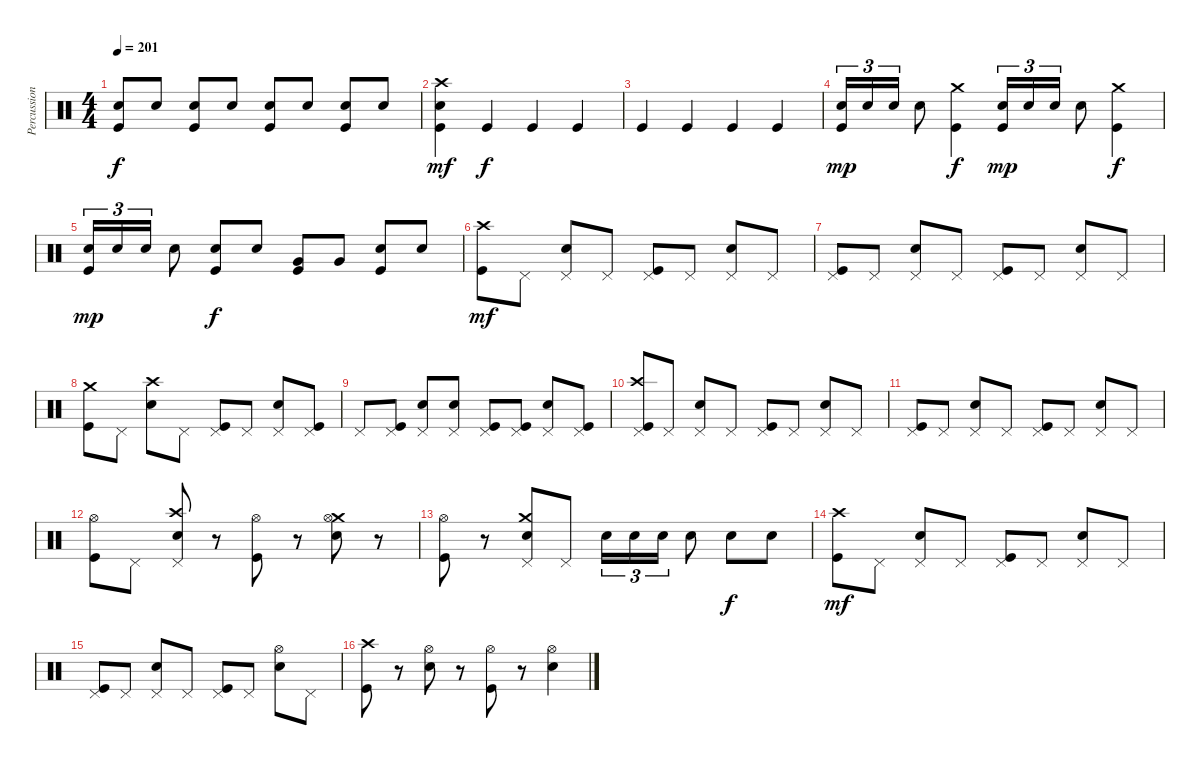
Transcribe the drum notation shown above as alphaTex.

\track ("Percussion" "Percussion") {instrument percussion}
\staff {score}
\articulation defaults
\ts (4 4)
\tempo 201
\clef neutral
\ks c
("Electric Snare (hit)" "Kick (hit)").8{dy f} "Electric Snare (hit)".8 ("Electric Snare (hit)" "Kick (hit)").8 "Electric Snare (hit)".8 ("Electric Snare (hit)" "Kick (hit)").8 "Electric Snare (hit)".8 ("Electric Snare (hit)" "Kick (hit)").8 "Electric Snare (hit)".8 |
("Crash high (hit)" "Electric Snare (hit)" "Kick (hit)").4{dy mf} "Kick (hit)".4{dy f} "Kick (hit)".4 "Kick (hit)".4 |
"Kick (hit)".4 "Kick (hit)".4 "Kick (hit)".4 "Kick (hit)".4 |
("Electric Snare (hit)" "Kick (hit)").16{tu (3 2) dy mp} "Electric Snare (hit)".16{tu (3 2)} "Electric Snare (hit)".16{tu (3 2)} "Electric Snare (hit)".8 ("Crash medium (hit)" "Kick (hit)").4{dy f} ("Electric Snare (hit)" "Kick (hit)").16{tu (3 2) dy mp} "Electric Snare (hit)".16{tu (3 2)} "Electric Snare (hit)".16{tu (3 2)} "Electric Snare (hit)".8 ("Crash medium (hit)" "Kick (hit)").4{dy f} |
("Electric Snare (hit)" "Kick (hit)").16{tu (3 2) dy mp} "Electric Snare (hit)".16{tu (3 2)} "Electric Snare (hit)".16{tu (3 2)} "Electric Snare (hit)".8 ("Electric Snare (hit)" "Kick (hit)").8{dy f} "Electric Snare (hit)".8 ("Very Low Tom (hit)" "Kick (hit)").8 "Very Low Tom (hit)".8 ("Electric Snare (hit)" "Kick (hit)").8 "Electric Snare (hit)".8 |
("Crash high (hit)" "Kick (hit)").8{dy mf} "Pedal Hi-Hat (hit)".8 ("Pedal Hi-Hat (hit)" "Electric Snare (hit)").8 "Pedal Hi-Hat (hit)".8 ("Pedal Hi-Hat (hit)" "Kick (hit)").8 "Pedal Hi-Hat (hit)".8 ("Pedal Hi-Hat (hit)" "Electric Snare (hit)").8 "Pedal Hi-Hat (hit)".8 |
("Pedal Hi-Hat (hit)" "Kick (hit)").8 "Pedal Hi-Hat (hit)".8 ("Pedal Hi-Hat (hit)" "Electric Snare (hit)").8 "Pedal Hi-Hat (hit)".8 ("Pedal Hi-Hat (hit)" "Kick (hit)").8 "Pedal Hi-Hat (hit)".8 ("Pedal Hi-Hat (hit)" "Electric Snare (hit)").8 "Pedal Hi-Hat (hit)".8 |
("Crash medium (hit)" "Kick (hit)").8 "Pedal Hi-Hat (hit)".8 ("Crash high (hit)" "Electric Snare (hit)").8 "Pedal Hi-Hat (hit)".8 ("Pedal Hi-Hat (hit)" "Kick (hit)").8 "Pedal Hi-Hat (hit)".8 ("Pedal Hi-Hat (hit)" "Electric Snare (hit)").8 ("Pedal Hi-Hat (hit)" "Kick (hit)").8 |
"Pedal Hi-Hat (hit)".8 ("Pedal Hi-Hat (hit)" "Kick (hit)").8 ("Pedal Hi-Hat (hit)" "Electric Snare (hit)").8 ("Pedal Hi-Hat (hit)" "Electric Snare (hit)").8 ("Pedal Hi-Hat (hit)" "Kick (hit)").8 ("Pedal Hi-Hat (hit)" "Kick (hit)").8 ("Pedal Hi-Hat (hit)" "Electric Snare (hit)").8 ("Pedal Hi-Hat (hit)" "Kick (hit)").8 |
("Crash high (hit)" "Pedal Hi-Hat (hit)" "Kick (hit)").8 "Pedal Hi-Hat (hit)".8 ("Pedal Hi-Hat (hit)" "Electric Snare (hit)").8 "Pedal Hi-Hat (hit)".8 ("Pedal Hi-Hat (hit)" "Kick (hit)").8 "Pedal Hi-Hat (hit)".8 ("Pedal Hi-Hat (hit)" "Electric Snare (hit)").8 "Pedal Hi-Hat (hit)".8 |
("Pedal Hi-Hat (hit)" "Kick (hit)").8 "Pedal Hi-Hat (hit)".8 ("Pedal Hi-Hat (hit)" "Electric Snare (hit)").8 "Pedal Hi-Hat (hit)".8 ("Pedal Hi-Hat (hit)" "Kick (hit)").8 "Pedal Hi-Hat (hit)".8 ("Pedal Hi-Hat (hit)" "Electric Snare (hit)").8 "Pedal Hi-Hat (hit)".8 |
("Hi-Hat (open)" "Kick (hit)").8 "Pedal Hi-Hat (hit)".8 ("Crash high (hit)" "Pedal Hi-Hat (hit)" "Electric Snare (hit)").8 r.8 ("Hi-Hat (open)" "Kick (hit)").8 r.8 ("Crash medium (hit)" "Hi-Hat (open)" "Electric Snare (hit)").8 r.8 |
("Hi-Hat (open)" "Kick (hit)").8 r.8 ("Crash medium (hit)" "Pedal Hi-Hat (hit)" "Electric Snare (hit)").8 "Pedal Hi-Hat (hit)".8 "Electric Snare (hit)".16{tu (3 2)} "Electric Snare (hit)".16{tu (3 2)} "Electric Snare (hit)".16{tu (3 2)} "Electric Snare (hit)".8 "Electric Snare (hit)".8{dy f} "Electric Snare (hit)".8 |
("Crash high (hit)" "Kick (hit)").8{dy mf} "Pedal Hi-Hat (hit)".8 ("Pedal Hi-Hat (hit)" "Electric Snare (hit)").8 "Pedal Hi-Hat (hit)".8 ("Pedal Hi-Hat (hit)" "Kick (hit)").8 "Pedal Hi-Hat (hit)".8 ("Pedal Hi-Hat (hit)" "Electric Snare (hit)").8 "Pedal Hi-Hat (hit)".8 |
("Pedal Hi-Hat (hit)" "Kick (hit)").8 "Pedal Hi-Hat (hit)".8 ("Pedal Hi-Hat (hit)" "Electric Snare (hit)").8 "Pedal Hi-Hat (hit)".8 ("Pedal Hi-Hat (hit)" "Kick (hit)").8 "Pedal Hi-Hat (hit)".8 ("Hi-Hat (open)" "Electric Snare (hit)").8 "Pedal Hi-Hat (hit)".8 |
("Crash high (hit)" "Kick (hit)").8 r.8 ("Hi-Hat (open)" "Electric Snare (hit)").8 r.8 ("Hi-Hat (open)" "Kick (hit)").8 r.8 ("Hi-Hat (open)" "Electric Snare (hit)").4
